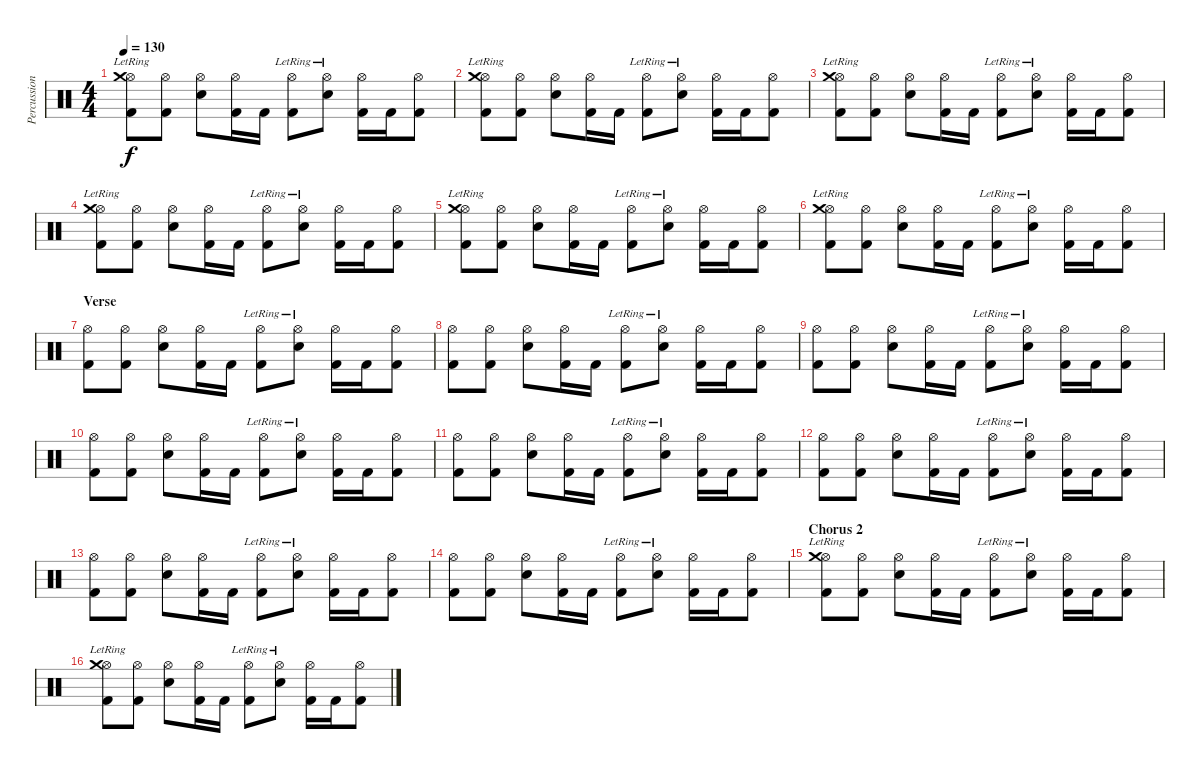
\track ("Percussions" "Percussion") {instrument percussion}
\staff {score}
\articulation defaults
\ts (4 4)
\tempo 130
\clef neutral
\ks c
("Kick (hit) 2" "Hi-Hat (open)" "Crash medium (hit)"{lr}).8{dy f} ("Kick (hit) 2" "Hi-Hat (open)").8 ("Snare (hit) 2" "Hi-Hat (open)").8 ("Kick (hit) 2" "Hi-Hat (open)").16 "Kick (hit) 2".16 ("Kick (hit) 2" "Hi-Hat (open)"{lr}).8 ("Snare (hit) 2" "Hi-Hat (open)"{lr}).8 ("Kick (hit) 2" "Hi-Hat (open)").16 "Kick (hit) 2".16 ("Kick (hit) 2" "Hi-Hat (open)").8 |
("Kick (hit) 2" "Hi-Hat (open)" "Crash medium (hit)"{lr}).8 ("Kick (hit) 2" "Hi-Hat (open)").8 ("Snare (hit) 2" "Hi-Hat (open)").8 ("Kick (hit) 2" "Hi-Hat (open)").16 "Kick (hit) 2".16 ("Kick (hit) 2" "Hi-Hat (open)"{lr}).8 ("Snare (hit) 2" "Hi-Hat (open)"{lr}).8 ("Kick (hit) 2" "Hi-Hat (open)").16 "Kick (hit) 2".16 ("Kick (hit) 2" "Hi-Hat (open)").8 |
("Kick (hit) 2" "Hi-Hat (open)" "Crash medium (hit)"{lr}).8 ("Kick (hit) 2" "Hi-Hat (open)").8 ("Snare (hit) 2" "Hi-Hat (open)").8 ("Kick (hit) 2" "Hi-Hat (open)").16 "Kick (hit) 2".16 ("Kick (hit) 2" "Hi-Hat (open)"{lr}).8 ("Snare (hit) 2" "Hi-Hat (open)"{lr}).8 ("Kick (hit) 2" "Hi-Hat (open)").16 "Kick (hit) 2".16 ("Kick (hit) 2" "Hi-Hat (open)").8 |
("Kick (hit) 2" "Hi-Hat (open)" "Crash medium (hit)"{lr}).8 ("Kick (hit) 2" "Hi-Hat (open)").8 ("Snare (hit) 2" "Hi-Hat (open)").8 ("Kick (hit) 2" "Hi-Hat (open)").16 "Kick (hit) 2".16 ("Kick (hit) 2" "Hi-Hat (open)"{lr}).8 ("Snare (hit) 2" "Hi-Hat (open)"{lr}).8 ("Kick (hit) 2" "Hi-Hat (open)").16 "Kick (hit) 2".16 ("Kick (hit) 2" "Hi-Hat (open)").8 |
("Kick (hit) 2" "Hi-Hat (open)" "Crash medium (hit)"{lr}).8 ("Kick (hit) 2" "Hi-Hat (open)").8 ("Snare (hit) 2" "Hi-Hat (open)").8 ("Kick (hit) 2" "Hi-Hat (open)").16 "Kick (hit) 2".16 ("Kick (hit) 2" "Hi-Hat (open)"{lr}).8 ("Snare (hit) 2" "Hi-Hat (open)"{lr}).8 ("Kick (hit) 2" "Hi-Hat (open)").16 "Kick (hit) 2".16 ("Kick (hit) 2" "Hi-Hat (open)").8 |
("Kick (hit) 2" "Hi-Hat (open)" "Crash medium (hit)"{lr}).8 ("Kick (hit) 2" "Hi-Hat (open)").8 ("Snare (hit) 2" "Hi-Hat (open)").8 ("Kick (hit) 2" "Hi-Hat (open)").16 "Kick (hit) 2".16 ("Kick (hit) 2" "Hi-Hat (open)"{lr}).8 ("Snare (hit) 2" "Hi-Hat (open)"{lr}).8 ("Kick (hit) 2" "Hi-Hat (open)").16 "Kick (hit) 2".16 ("Kick (hit) 2" "Hi-Hat (open)").8 |
\section ("" "Verse")
("Kick (hit) 2" "Hi-Hat (open)").8 ("Kick (hit) 2" "Hi-Hat (open)").8 ("Snare (hit) 2" "Hi-Hat (open)").8 ("Kick (hit) 2" "Hi-Hat (open)").16 "Kick (hit) 2".16 ("Kick (hit) 2" "Hi-Hat (open)"{lr}).8 ("Snare (hit) 2" "Hi-Hat (open)"{lr}).8 ("Kick (hit) 2" "Hi-Hat (open)").16 "Kick (hit) 2".16 ("Kick (hit) 2" "Hi-Hat (open)").8 |
("Kick (hit) 2" "Hi-Hat (open)").8 ("Kick (hit) 2" "Hi-Hat (open)").8 ("Snare (hit) 2" "Hi-Hat (open)").8 ("Kick (hit) 2" "Hi-Hat (open)").16 "Kick (hit) 2".16 ("Kick (hit) 2" "Hi-Hat (open)"{lr}).8 ("Snare (hit) 2" "Hi-Hat (open)"{lr}).8 ("Kick (hit) 2" "Hi-Hat (open)").16 "Kick (hit) 2".16 ("Kick (hit) 2" "Hi-Hat (open)").8 |
("Kick (hit) 2" "Hi-Hat (open)").8 ("Kick (hit) 2" "Hi-Hat (open)").8 ("Snare (hit) 2" "Hi-Hat (open)").8 ("Kick (hit) 2" "Hi-Hat (open)").16 "Kick (hit) 2".16 ("Kick (hit) 2" "Hi-Hat (open)"{lr}).8 ("Snare (hit) 2" "Hi-Hat (open)"{lr}).8 ("Kick (hit) 2" "Hi-Hat (open)").16 "Kick (hit) 2".16 ("Kick (hit) 2" "Hi-Hat (open)").8 |
("Kick (hit) 2" "Hi-Hat (open)").8 ("Kick (hit) 2" "Hi-Hat (open)").8 ("Snare (hit) 2" "Hi-Hat (open)").8 ("Kick (hit) 2" "Hi-Hat (open)").16 "Kick (hit) 2".16 ("Kick (hit) 2" "Hi-Hat (open)"{lr}).8 ("Snare (hit) 2" "Hi-Hat (open)"{lr}).8 ("Kick (hit) 2" "Hi-Hat (open)").16 "Kick (hit) 2".16 ("Kick (hit) 2" "Hi-Hat (open)").8 |
("Kick (hit) 2" "Hi-Hat (open)").8 ("Kick (hit) 2" "Hi-Hat (open)").8 ("Snare (hit) 2" "Hi-Hat (open)").8 ("Kick (hit) 2" "Hi-Hat (open)").16 "Kick (hit) 2".16 ("Kick (hit) 2" "Hi-Hat (open)"{lr}).8 ("Snare (hit) 2" "Hi-Hat (open)"{lr}).8 ("Kick (hit) 2" "Hi-Hat (open)").16 "Kick (hit) 2".16 ("Kick (hit) 2" "Hi-Hat (open)").8 |
("Kick (hit) 2" "Hi-Hat (open)").8 ("Kick (hit) 2" "Hi-Hat (open)").8 ("Snare (hit) 2" "Hi-Hat (open)").8 ("Kick (hit) 2" "Hi-Hat (open)").16 "Kick (hit) 2".16 ("Kick (hit) 2" "Hi-Hat (open)"{lr}).8 ("Snare (hit) 2" "Hi-Hat (open)"{lr}).8 ("Kick (hit) 2" "Hi-Hat (open)").16 "Kick (hit) 2".16 ("Kick (hit) 2" "Hi-Hat (open)").8 |
("Kick (hit) 2" "Hi-Hat (open)").8 ("Kick (hit) 2" "Hi-Hat (open)").8 ("Snare (hit) 2" "Hi-Hat (open)").8 ("Kick (hit) 2" "Hi-Hat (open)").16 "Kick (hit) 2".16 ("Kick (hit) 2" "Hi-Hat (open)"{lr}).8 ("Snare (hit) 2" "Hi-Hat (open)"{lr}).8 ("Kick (hit) 2" "Hi-Hat (open)").16 "Kick (hit) 2".16 ("Kick (hit) 2" "Hi-Hat (open)").8 |
("Kick (hit) 2" "Hi-Hat (open)").8 ("Kick (hit) 2" "Hi-Hat (open)").8 ("Snare (hit) 2" "Hi-Hat (open)").8 ("Kick (hit) 2" "Hi-Hat (open)").16 "Kick (hit) 2".16 ("Kick (hit) 2" "Hi-Hat (open)"{lr}).8 ("Snare (hit) 2" "Hi-Hat (open)"{lr}).8 ("Kick (hit) 2" "Hi-Hat (open)").16 "Kick (hit) 2".16 ("Kick (hit) 2" "Hi-Hat (open)").8 |
\section ("" "Chorus 2")
("Kick (hit) 2" "Hi-Hat (open)" "Crash medium (hit)"{lr}).8 ("Kick (hit) 2" "Hi-Hat (open)").8 ("Snare (hit) 2" "Hi-Hat (open)").8 ("Kick (hit) 2" "Hi-Hat (open)").16 "Kick (hit) 2".16 ("Kick (hit) 2" "Hi-Hat (open)"{lr}).8 ("Snare (hit) 2" "Hi-Hat (open)"{lr}).8 ("Kick (hit) 2" "Hi-Hat (open)").16 "Kick (hit) 2".16 ("Kick (hit) 2" "Hi-Hat (open)").8 |
("Kick (hit) 2" "Hi-Hat (open)" "Crash medium (hit)"{lr}).8 ("Kick (hit) 2" "Hi-Hat (open)").8 ("Snare (hit) 2" "Hi-Hat (open)").8 ("Kick (hit) 2" "Hi-Hat (open)").16 "Kick (hit) 2".16 ("Kick (hit) 2" "Hi-Hat (open)"{lr}).8 ("Snare (hit) 2" "Hi-Hat (open)"{lr}).8 ("Kick (hit) 2" "Hi-Hat (open)").16 "Kick (hit) 2".16 ("Kick (hit) 2" "Hi-Hat (open)").8
